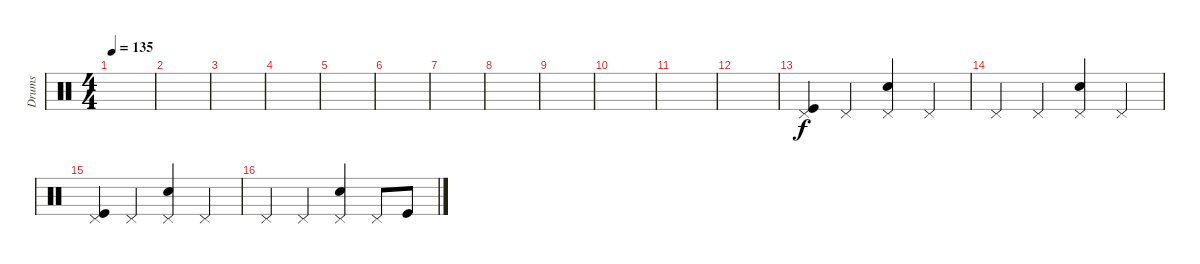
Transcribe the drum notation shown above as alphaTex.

\track ("Drums" "Drums") {instrument percussion}
\staff {score}
\articulation defaults
\ts (4 4)
\tempo 135
\clef neutral
\ks c
|
|
|
|
|
|
|
|
|
|
|
|
("Pedal Hi-Hat (hit)" "Kick (hit)").4 "Pedal Hi-Hat (hit)".4 ("Pedal Hi-Hat (hit)" "Snare (hit) 2").4 "Pedal Hi-Hat (hit)".4 |
"Pedal Hi-Hat (hit)".4 "Pedal Hi-Hat (hit)".4 ("Pedal Hi-Hat (hit)" "Snare (hit) 2").4 "Pedal Hi-Hat (hit)".4 |
("Pedal Hi-Hat (hit)" "Kick (hit)").4 "Pedal Hi-Hat (hit)".4 ("Pedal Hi-Hat (hit)" "Snare (hit) 2").4 "Pedal Hi-Hat (hit)".4 |
"Pedal Hi-Hat (hit)".4 "Pedal Hi-Hat (hit)".4 ("Pedal Hi-Hat (hit)" "Snare (hit) 2").4 "Pedal Hi-Hat (hit)".8 "Kick (hit)".8
